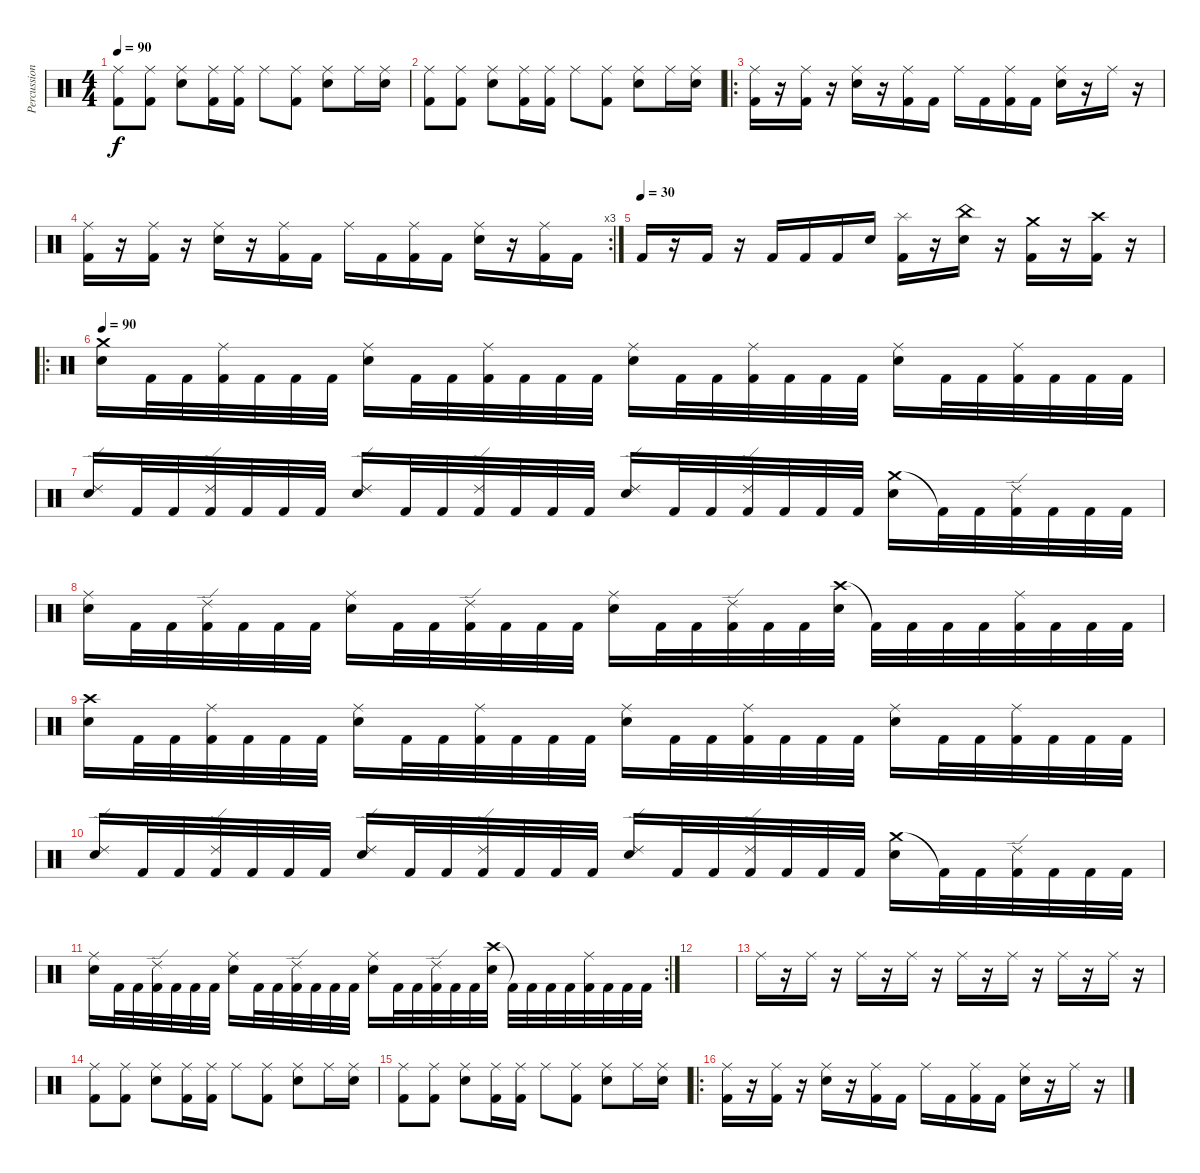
\track ("Percussion" "Percussion") {instrument percussion}
\staff {score}
\articulation defaults
\ts (4 4)
\tempo 90
\clef neutral
\ks c
("Ride (middle)" "Kick (hit) 2").8{dy f} ("Ride (middle)" "Kick (hit) 2").8 ("Ride (middle)" "Electric Snare (hit)").8 ("Ride (middle)" "Kick (hit) 2").16 ("Ride (middle)" "Kick (hit) 2").16 "Ride (middle)".8 ("Ride (middle)" "Kick (hit) 2").8 ("Ride (middle)" "Electric Snare (hit)").8 "Ride (middle)".16 ("Ride (middle)" "Electric Snare (hit)").16 |
("Ride (middle)" "Kick (hit) 2").8 ("Ride (middle)" "Kick (hit) 2").8 ("Ride (middle)" "Electric Snare (hit)").8 ("Ride (middle)" "Kick (hit) 2").16 ("Ride (middle)" "Kick (hit) 2").16 "Ride (middle)".8 ("Ride (middle)" "Kick (hit) 2").8 ("Ride (middle)" "Electric Snare (hit)").8 "Ride (middle)".16 ("Ride (middle)" "Electric Snare (hit)").16 |
\ro
("Ride (middle)" "Kick (hit) 2").16 r.16 ("Ride (middle)" "Kick (hit) 2").16 r.16 ("Ride (middle)" "Electric Snare (hit)").16 r.16 ("Ride (middle)" "Kick (hit) 2").16 "Kick (hit) 2".16 "Ride (middle)".16 "Kick (hit) 2".16 ("Ride (middle)" "Kick (hit) 2").16 "Kick (hit) 2".16 ("Ride (middle)" "Electric Snare (hit)").16 r.16 "Ride (middle)".16 r.16 |
\rc 3
("Ride (middle)" "Kick (hit) 2").16 r.16 ("Ride (middle)" "Kick (hit) 2").16 r.16 ("Ride (middle)" "Electric Snare (hit)").16 r.16 ("Ride (middle)" "Kick (hit) 2").16 "Kick (hit) 2".16 "Ride (middle)".16 "Kick (hit) 2".16 ("Ride (middle)" "Kick (hit) 2").16 "Kick (hit) 2".16 ("Ride (middle)" "Electric Snare (hit)").16 r.16 ("Ride (middle)" "Kick (hit) 2").16 "Kick (hit) 2".16 |
\tempo (30)
"Kick (hit) 2".16 r.16 "Kick (hit) 2".16 r.16 "Kick (hit) 2".16 "Kick (hit) 2".16 "Kick (hit) 2".16 "Electric Snare (hit)".16 ("Splash (hit)" "Kick (hit) 2").16 r.16 ("China (hit)" "Electric Snare (hit)").16 r.16 ("Crash medium (hit)" "Kick (hit) 2").16 r.16 ("Crash high (hit)" "Kick (hit) 2").16 r.16 |
\ro
\tempo 90
("Crash medium (hit)" "Snare (hit) 2").16 "Kick (hit) 2".32 "Kick (hit) 2".32 ("Ride (middle)" "Kick (hit) 2").32 "Kick (hit) 2".32 "Kick (hit) 2".32 "Kick (hit) 2".32 ("Ride (middle)" "Snare (hit) 2").16 "Kick (hit) 2".32 "Kick (hit) 2".32 ("Ride (middle)" "Kick (hit) 2").32 "Kick (hit) 2".32 "Kick (hit) 2".32 "Kick (hit) 2".32 ("Ride (middle)" "Snare (hit) 2").16 "Kick (hit) 2".32 "Kick (hit) 2".32 ("Ride (middle)" "Kick (hit) 2").32 "Kick (hit) 2".32 "Kick (hit) 2".32 "Kick (hit) 2".32 ("Ride (middle)" "Snare (hit) 2").16 "Kick (hit) 2".32 "Kick (hit) 2".32 ("Ride (middle)" "Kick (hit) 2").32 "Kick (hit) 2".32 "Kick (hit) 2".32 "Kick (hit) 2".32 |
("Ride (edge) 2" "Snare (hit) 2").16 "Kick (hit) 2".32 "Kick (hit) 2".32 ("Ride (edge) 2" "Kick (hit) 2").32 "Kick (hit) 2".32 "Kick (hit) 2".32 "Kick (hit) 2".32 ("Ride (edge) 2" "Snare (hit) 2").16 "Kick (hit) 2".32 "Kick (hit) 2".32 ("Ride (edge) 2" "Kick (hit) 2").32 "Kick (hit) 2".32 "Kick (hit) 2".32 "Kick (hit) 2".32 ("Ride (edge) 2" "Snare (hit) 2").16 "Kick (hit) 2".32 "Kick (hit) 2".32 ("Ride (edge) 2" "Kick (hit) 2").32 "Kick (hit) 2".32 "Kick (hit) 2".32 "Kick (hit) 2".32 ("Crash medium (hit)" "Snare (hit) 2").16 "Kick (hit) 2"{t}.32 "Kick (hit) 2".32 ("Ride (edge) 2" "Kick (hit) 2").32 "Kick (hit) 2".32 "Kick (hit) 2".32 "Kick (hit) 2".32 |
("Ride (middle)" "Snare (hit) 2").16 "Kick (hit) 2".32 "Kick (hit) 2".32 ("Ride (edge) 2" "Kick (hit) 2").32 "Kick (hit) 2".32 "Kick (hit) 2".32 "Kick (hit) 2".32 ("Ride (middle)" "Snare (hit) 2").16 "Kick (hit) 2".32 "Kick (hit) 2".32 ("Ride (edge) 2" "Kick (hit) 2").32 "Kick (hit) 2".32 "Kick (hit) 2".32 "Kick (hit) 2".32 ("Ride (middle)" "Snare (hit) 2").16 "Kick (hit) 2".32 "Kick (hit) 2".32 ("Ride (edge) 2" "Kick (hit) 2").32 "Kick (hit) 2".32 "Kick (hit) 2".32 ("Crash high (hit)" "Snare (hit) 2").32 "Kick (hit) 2"{t}.32 "Kick (hit) 2".32 "Kick (hit) 2".32 "Kick (hit) 2".32 ("Ride (middle)" "Kick (hit) 2").32 "Kick (hit) 2".32 "Kick (hit) 2".32 "Kick (hit) 2".32 |
("Crash high (hit)" "Snare (hit) 2").16 "Kick (hit) 2".32 "Kick (hit) 2".32 ("Ride (middle)" "Kick (hit) 2").32 "Kick (hit) 2".32 "Kick (hit) 2".32 "Kick (hit) 2".32 ("Ride (middle)" "Snare (hit) 2").16 "Kick (hit) 2".32 "Kick (hit) 2".32 ("Ride (middle)" "Kick (hit) 2").32 "Kick (hit) 2".32 "Kick (hit) 2".32 "Kick (hit) 2".32 ("Ride (middle)" "Snare (hit) 2").16 "Kick (hit) 2".32 "Kick (hit) 2".32 ("Ride (middle)" "Kick (hit) 2").32 "Kick (hit) 2".32 "Kick (hit) 2".32 "Kick (hit) 2".32 ("Ride (middle)" "Snare (hit) 2").16 "Kick (hit) 2".32 "Kick (hit) 2".32 ("Ride (middle)" "Kick (hit) 2").32 "Kick (hit) 2".32 "Kick (hit) 2".32 "Kick (hit) 2".32 |
("Ride (edge) 2" "Snare (hit) 2").16 "Kick (hit) 2".32 "Kick (hit) 2".32 ("Ride (edge) 2" "Kick (hit) 2").32 "Kick (hit) 2".32 "Kick (hit) 2".32 "Kick (hit) 2".32 ("Ride (edge) 2" "Snare (hit) 2").16 "Kick (hit) 2".32 "Kick (hit) 2".32 ("Ride (edge) 2" "Kick (hit) 2").32 "Kick (hit) 2".32 "Kick (hit) 2".32 "Kick (hit) 2".32 ("Ride (edge) 2" "Snare (hit) 2").16 "Kick (hit) 2".32 "Kick (hit) 2".32 ("Ride (edge) 2" "Kick (hit) 2").32 "Kick (hit) 2".32 "Kick (hit) 2".32 "Kick (hit) 2".32 ("Crash medium (hit)" "Snare (hit) 2").16 "Kick (hit) 2"{t}.32 "Kick (hit) 2".32 ("Ride (edge) 2" "Kick (hit) 2").32 "Kick (hit) 2".32 "Kick (hit) 2".32 "Kick (hit) 2".32 |
\rc 2
("Ride (middle)" "Snare (hit) 2").16 "Kick (hit) 2".32 "Kick (hit) 2".32 ("Ride (edge) 2" "Kick (hit) 2").32 "Kick (hit) 2".32 "Kick (hit) 2".32 "Kick (hit) 2".32 ("Ride (middle)" "Snare (hit) 2").16 "Kick (hit) 2".32 "Kick (hit) 2".32 ("Ride (edge) 2" "Kick (hit) 2").32 "Kick (hit) 2".32 "Kick (hit) 2".32 "Kick (hit) 2".32 ("Ride (middle)" "Snare (hit) 2").16 "Kick (hit) 2".32 "Kick (hit) 2".32 ("Ride (edge) 2" "Kick (hit) 2").32 "Kick (hit) 2".32 "Kick (hit) 2".32 ("Crash high (hit)" "Snare (hit) 2").32 "Kick (hit) 2"{t}.32 "Kick (hit) 2".32 "Kick (hit) 2".32 "Kick (hit) 2".32 ("Ride (middle)" "Kick (hit) 2").32 "Kick (hit) 2".32 "Kick (hit) 2".32 "Kick (hit) 2".32 |
|
"Ride (middle)".16 r.16 "Ride (middle)".16 r.16 "Ride (middle)".16 r.16 "Ride (middle)".16 r.16 "Ride (middle)".16 r.16 "Ride (middle)".16 r.16 "Ride (middle)".16 r.16 "Ride (middle)".16 r.16 |
("Ride (middle)" "Kick (hit) 2").8 ("Ride (middle)" "Kick (hit) 2").8 ("Ride (middle)" "Electric Snare (hit)").8 ("Ride (middle)" "Kick (hit) 2").16 ("Ride (middle)" "Kick (hit) 2").16 "Ride (middle)".8 ("Ride (middle)" "Kick (hit) 2").8 ("Ride (middle)" "Electric Snare (hit)").8 "Ride (middle)".16 ("Ride (middle)" "Electric Snare (hit)").16 |
("Ride (middle)" "Kick (hit) 2").8 ("Ride (middle)" "Kick (hit) 2").8 ("Ride (middle)" "Electric Snare (hit)").8 ("Ride (middle)" "Kick (hit) 2").16 ("Ride (middle)" "Kick (hit) 2").16 "Ride (middle)".8 ("Ride (middle)" "Kick (hit) 2").8 ("Ride (middle)" "Electric Snare (hit)").8 "Ride (middle)".16 ("Ride (middle)" "Electric Snare (hit)").16 |
\ro
("Ride (middle)" "Kick (hit) 2").16 r.16 ("Ride (middle)" "Kick (hit) 2").16 r.16 ("Ride (middle)" "Electric Snare (hit)").16 r.16 ("Ride (middle)" "Kick (hit) 2").16 "Kick (hit) 2".16 "Ride (middle)".16 "Kick (hit) 2".16 ("Ride (middle)" "Kick (hit) 2").16 "Kick (hit) 2".16 ("Ride (middle)" "Electric Snare (hit)").16 r.16 "Ride (middle)".16 r.16
